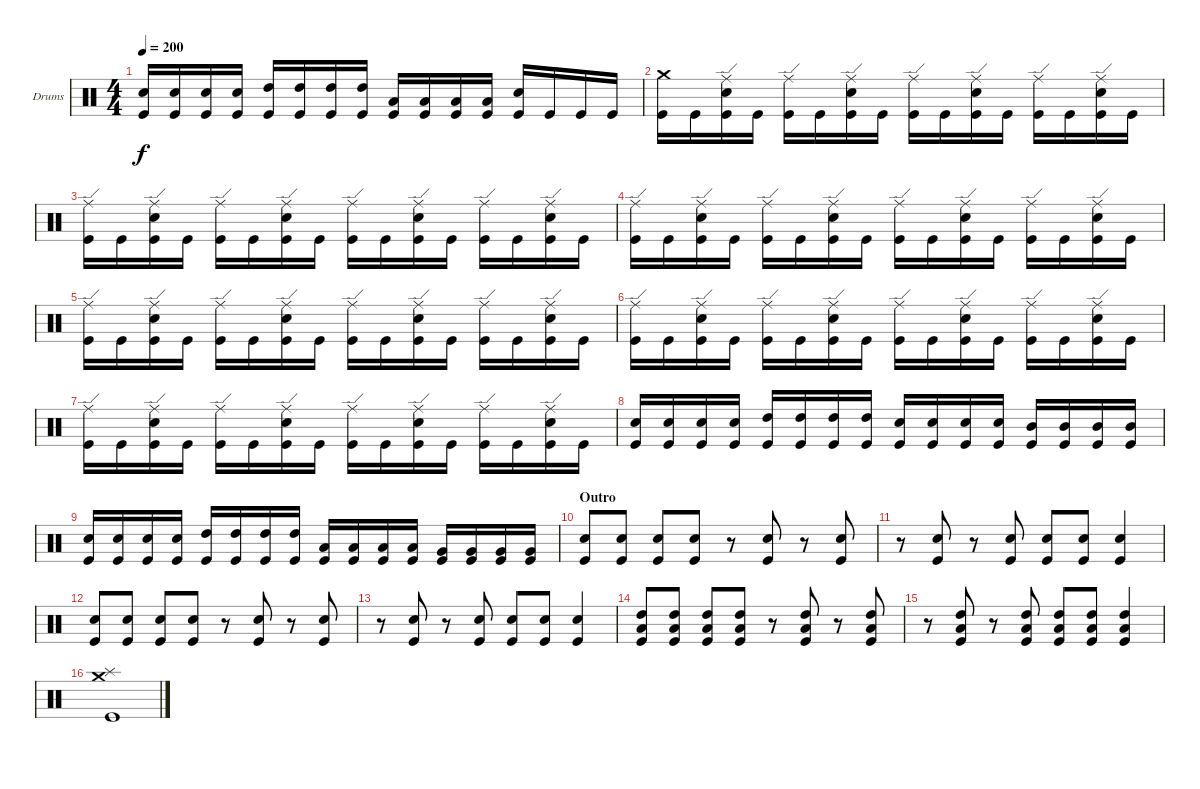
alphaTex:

\bracketExtendMode groupsimilarinstruments
\firstSystemTrackNameOrientation horizontal
\otherSystemsTrackNameOrientation horizontal
\track ("Drumkit" "Drums") {instrument percussion}
\staff {score}
\articulation defaults
\ts (4 4)
\tempo 200
\clef neutral
\ks aminor
("Kick (hit)" "Snare (hit) 2").16{dy f} ("Kick (hit)" "Snare (hit) 2").16 ("Kick (hit)" "Snare (hit) 2").16 ("Kick (hit)" "Snare (hit) 2").16 ("Kick (hit)" "High Tom (hit)").16 ("Kick (hit)" "High Tom (hit)").16 ("Kick (hit)" "High Tom (hit)").16 ("Kick (hit)" "High Tom (hit)").16 ("Kick (hit)" "Low Tom (hit)").16 ("Kick (hit)" "Low Tom (hit)").16 ("Kick (hit)" "Low Tom (hit)").16 ("Kick (hit)" "Low Tom (hit)").16 ("Kick (hit)" "Snare (hit) 2").16 "Kick (hit)".16 "Kick (hit)".16 "Kick (hit)".16 |
\section ("" "")
("Kick (hit)" "Crash medium (hit)").16 "Kick (hit)".16 ("Kick (hit)" "Snare (hit) 2" "Ride (edge)").16 "Kick (hit)".16 ("Kick (hit)" "Ride (edge)").16 "Kick (hit)".16 ("Kick (hit)" "Snare (hit) 2" "Ride (edge)").16 "Kick (hit)".16 ("Kick (hit)" "Ride (edge)").16 "Kick (hit)".16 ("Kick (hit)" "Snare (hit) 2" "Ride (edge)").16 "Kick (hit)".16 ("Kick (hit)" "Ride (edge)").16 "Kick (hit)".16 ("Kick (hit)" "Snare (hit) 2" "Ride (edge)").16 "Kick (hit)".16 |
("Kick (hit)" "Ride (edge)").16 "Kick (hit)".16 ("Kick (hit)" "Snare (hit) 2" "Ride (edge)").16 "Kick (hit)".16 ("Kick (hit)" "Ride (edge)").16 "Kick (hit)".16 ("Kick (hit)" "Snare (hit) 2" "Ride (edge)").16 "Kick (hit)".16 ("Kick (hit)" "Ride (edge)").16 "Kick (hit)".16 ("Kick (hit)" "Snare (hit) 2" "Ride (edge)").16 "Kick (hit)".16 ("Kick (hit)" "Ride (edge)").16 "Kick (hit)".16 ("Kick (hit)" "Snare (hit) 2" "Ride (edge)").16 "Kick (hit)".16 |
("Kick (hit)" "Ride (edge)").16 "Kick (hit)".16 ("Kick (hit)" "Snare (hit) 2" "Ride (edge)").16 "Kick (hit)".16 ("Kick (hit)" "Ride (edge)").16 "Kick (hit)".16 ("Kick (hit)" "Snare (hit) 2" "Ride (edge)").16 "Kick (hit)".16 ("Kick (hit)" "Ride (edge)").16 "Kick (hit)".16 ("Kick (hit)" "Snare (hit) 2" "Ride (edge)").16 "Kick (hit)".16 ("Kick (hit)" "Ride (edge)").16 "Kick (hit)".16 ("Kick (hit)" "Snare (hit) 2" "Ride (edge)").16 "Kick (hit)".16 |
("Kick (hit)" "Ride (edge)").16 "Kick (hit)".16 ("Kick (hit)" "Snare (hit) 2" "Ride (edge)").16 "Kick (hit)".16 ("Kick (hit)" "Ride (edge)").16 "Kick (hit)".16 ("Kick (hit)" "Snare (hit) 2" "Ride (edge)").16 "Kick (hit)".16 ("Kick (hit)" "Ride (edge)").16 "Kick (hit)".16 ("Kick (hit)" "Snare (hit) 2" "Ride (edge)").16 "Kick (hit)".16 ("Kick (hit)" "Ride (edge)").16 "Kick (hit)".16 ("Kick (hit)" "Snare (hit) 2" "Ride (edge)").16 "Kick (hit)".16 |
("Kick (hit)" "Ride (edge)").16 "Kick (hit)".16 ("Kick (hit)" "Snare (hit) 2" "Ride (edge)").16 "Kick (hit)".16 ("Kick (hit)" "Ride (edge)").16 "Kick (hit)".16 ("Kick (hit)" "Snare (hit) 2" "Ride (edge)").16 "Kick (hit)".16 ("Kick (hit)" "Ride (edge)").16 "Kick (hit)".16 ("Kick (hit)" "Snare (hit) 2" "Ride (edge)").16 "Kick (hit)".16 ("Kick (hit)" "Ride (edge)").16 "Kick (hit)".16 ("Kick (hit)" "Snare (hit) 2" "Ride (edge)").16 "Kick (hit)".16 |
("Kick (hit)" "Ride (edge)").16 "Kick (hit)".16 ("Kick (hit)" "Snare (hit) 2" "Ride (edge)").16 "Kick (hit)".16 ("Kick (hit)" "Ride (edge)").16 "Kick (hit)".16 ("Kick (hit)" "Snare (hit) 2" "Ride (edge)").16 "Kick (hit)".16 ("Kick (hit)" "Ride (edge)").16 "Kick (hit)".16 ("Kick (hit)" "Snare (hit) 2" "Ride (edge)").16 "Kick (hit)".16 ("Kick (hit)" "Ride (edge)").16 "Kick (hit)".16 ("Kick (hit)" "Snare (hit) 2" "Ride (edge)").16 "Kick (hit)".16 |
("Kick (hit)" "Snare (hit) 2").16 ("Kick (hit)" "Snare (hit) 2").16 ("Kick (hit)" "Snare (hit) 2").16 ("Kick (hit)" "Snare (hit) 2").16 ("Kick (hit)" "High Tom (hit)").16 ("Kick (hit)" "High Tom (hit)").16 ("Kick (hit)" "High Tom (hit)").16 ("Kick (hit)" "High Tom (hit)").16 ("Kick (hit)" "Snare (hit) 2").16 ("Kick (hit)" "Snare (hit) 2").16 ("Kick (hit)" "Snare (hit) 2").16 ("Kick (hit)" "Snare (hit) 2").16 ("Kick (hit)" "Mid Tom (hit)").16 ("Kick (hit)" "Mid Tom (hit)").16 ("Kick (hit)" "Mid Tom (hit)").16 ("Kick (hit)" "Mid Tom (hit)").16 |
("Kick (hit)" "Snare (hit) 2").16 ("Kick (hit)" "Snare (hit) 2").16 ("Kick (hit)" "Snare (hit) 2").16 ("Kick (hit)" "Snare (hit) 2").16 ("Kick (hit)" "High Tom (hit)").16 ("Kick (hit)" "High Tom (hit)").16 ("Kick (hit)" "High Tom (hit)").16 ("Kick (hit)" "High Tom (hit)").16 ("Kick (hit)" "Low Tom (hit)").16 ("Kick (hit)" "Low Tom (hit)").16 ("Kick (hit)" "Low Tom (hit)").16 ("Kick (hit)" "Low Tom (hit)").16 ("Kick (hit)" "Very Low Tom (hit)").16 ("Kick (hit)" "Very Low Tom (hit)").16 ("Kick (hit)" "Very Low Tom (hit)").16 ("Kick (hit)" "Very Low Tom (hit)").16 |
\section ("" "Outro")
("Kick (hit)" "Snare (hit) 2").8 ("Kick (hit)" "Snare (hit) 2").8 ("Kick (hit)" "Snare (hit) 2").8 ("Kick (hit)" "Snare (hit) 2").8 r.8 ("Kick (hit)" "Snare (hit) 2").8 r.8 ("Kick (hit)" "Snare (hit) 2").8 |
r.8 ("Kick (hit)" "Snare (hit) 2").8 r.8 ("Kick (hit)" "Snare (hit) 2").8 ("Kick (hit)" "Snare (hit) 2").8 ("Kick (hit)" "Snare (hit) 2").8 ("Kick (hit)" "Snare (hit) 2").4 |
("Kick (hit)" "Snare (hit) 2").8 ("Kick (hit)" "Snare (hit) 2").8 ("Kick (hit)" "Snare (hit) 2").8 ("Kick (hit)" "Snare (hit) 2").8 r.8 ("Kick (hit)" "Snare (hit) 2").8 r.8 ("Kick (hit)" "Snare (hit) 2").8 |
r.8 ("Kick (hit)" "Snare (hit) 2").8 r.8 ("Kick (hit)" "Snare (hit) 2").8 ("Kick (hit)" "Snare (hit) 2").8 ("Kick (hit)" "Snare (hit) 2").8 ("Kick (hit)" "Snare (hit) 2").4 |
("Kick (hit)" "Low Tom (hit)" "High Tom (hit)").8 ("Kick (hit)" "Low Tom (hit)" "High Tom (hit)").8 ("Kick (hit)" "Low Tom (hit)" "High Tom (hit)").8 ("Kick (hit)" "Low Tom (hit)" "High Tom (hit)").8 r.8 ("Kick (hit)" "Low Tom (hit)" "High Tom (hit)").8 r.8 ("Kick (hit)" "Low Tom (hit)" "High Tom (hit)").8 |
r.8 ("Kick (hit)" "Low Tom (hit)" "High Tom (hit)").8 r.8 ("Kick (hit)" "Low Tom (hit)" "High Tom (hit)").8 ("Kick (hit)" "Low Tom (hit)" "High Tom (hit)").8 ("Kick (hit)" "Low Tom (hit)" "High Tom (hit)").8 ("Kick (hit)" "Low Tom (hit)" "High Tom (hit)").4 |
("Kick (hit)" "Splash (hit)" "Crash medium (hit)").1
